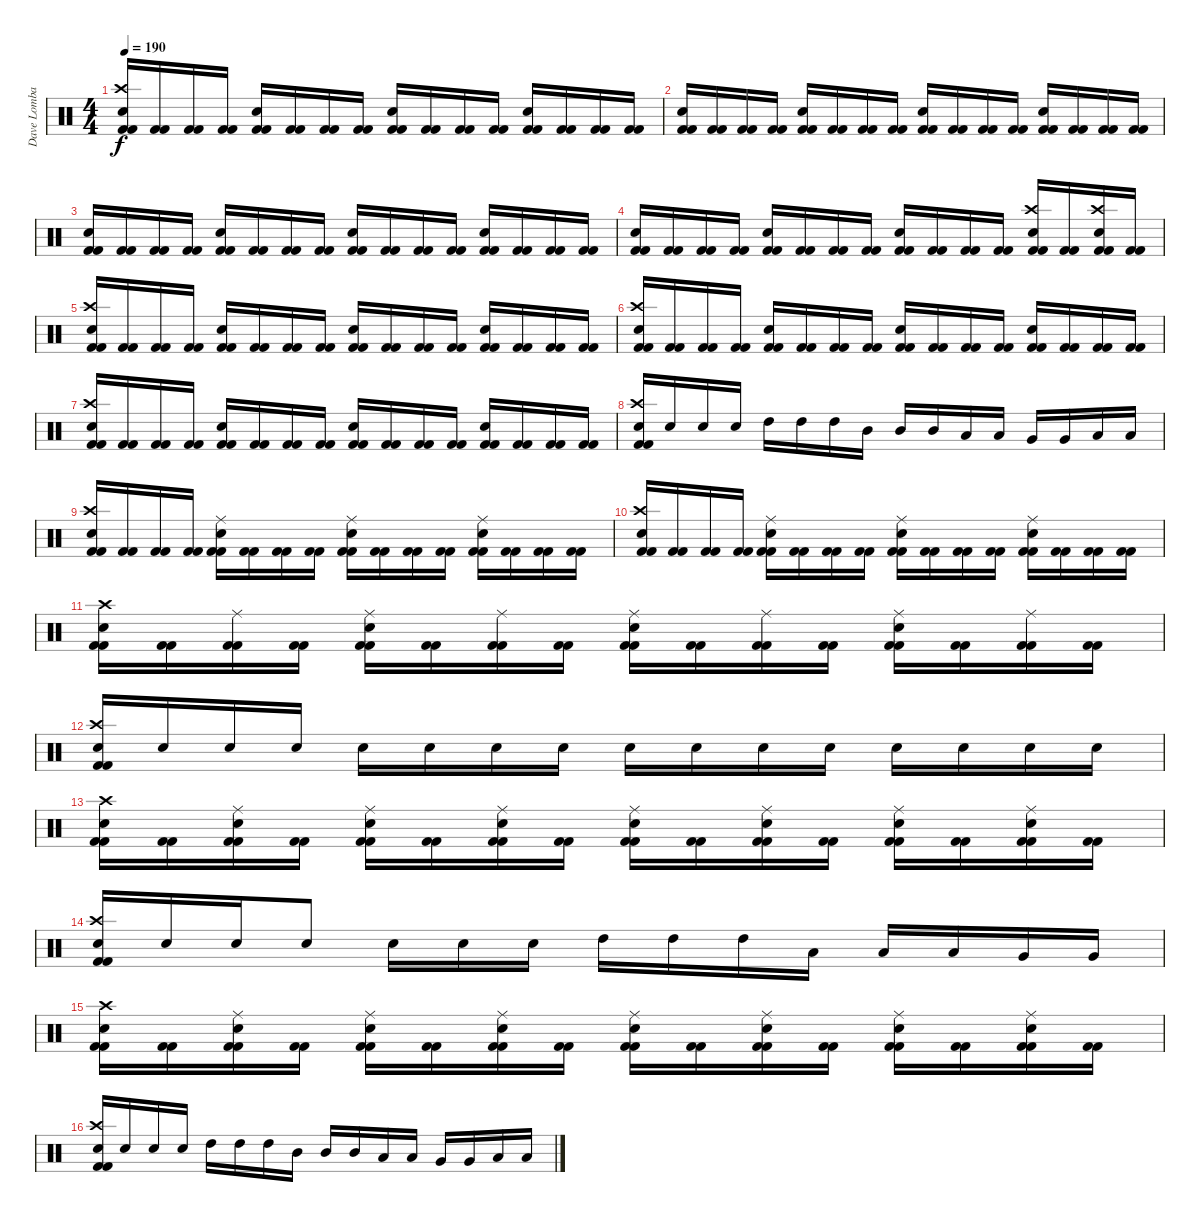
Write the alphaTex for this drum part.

\track ("Dave Lombardo" "Dave Lomba") {instrument percussion}
\staff {score}
\articulation defaults
\ts (4 4)
\tempo 190
\clef neutral
\ks c
("Kick (hit) 2" "Crash high (hit)" "Electric Snare (hit)" "Kick (hit) 2").16{dy f} ("Kick (hit) 2" "Kick (hit) 2").16 ("Kick (hit) 2" "Kick (hit) 2").16 ("Kick (hit) 2" "Kick (hit) 2").16 ("Kick (hit) 2" "Electric Snare (hit)" "Kick (hit) 2").16 ("Kick (hit) 2" "Kick (hit) 2").16 ("Kick (hit) 2" "Kick (hit) 2").16 ("Kick (hit) 2" "Kick (hit) 2").16 ("Kick (hit) 2" "Electric Snare (hit)" "Kick (hit) 2").16 ("Kick (hit) 2" "Kick (hit) 2").16 ("Kick (hit) 2" "Kick (hit) 2").16 ("Kick (hit) 2" "Kick (hit) 2").16 ("Kick (hit) 2" "Electric Snare (hit)" "Kick (hit) 2").16 ("Kick (hit) 2" "Kick (hit) 2").16 ("Kick (hit) 2" "Kick (hit) 2").16 ("Kick (hit) 2" "Kick (hit) 2").16 |
("Kick (hit) 2" "Electric Snare (hit)" "Kick (hit) 2").16 ("Kick (hit) 2" "Kick (hit) 2").16 ("Kick (hit) 2" "Kick (hit) 2").16 ("Kick (hit) 2" "Kick (hit) 2").16 ("Kick (hit) 2" "Electric Snare (hit)" "Kick (hit) 2").16 ("Kick (hit) 2" "Kick (hit) 2").16 ("Kick (hit) 2" "Kick (hit) 2").16 ("Kick (hit) 2" "Kick (hit) 2").16 ("Kick (hit) 2" "Electric Snare (hit)" "Kick (hit) 2").16 ("Kick (hit) 2" "Kick (hit) 2").16 ("Kick (hit) 2" "Kick (hit) 2").16 ("Kick (hit) 2" "Kick (hit) 2").16 ("Kick (hit) 2" "Electric Snare (hit)" "Kick (hit) 2").16 ("Kick (hit) 2" "Kick (hit) 2").16 ("Kick (hit) 2" "Kick (hit) 2").16 ("Kick (hit) 2" "Kick (hit) 2").16 |
("Kick (hit) 2" "Electric Snare (hit)" "Kick (hit) 2").16 ("Kick (hit) 2" "Kick (hit) 2").16 ("Kick (hit) 2" "Kick (hit) 2").16 ("Kick (hit) 2" "Kick (hit) 2").16 ("Kick (hit) 2" "Electric Snare (hit)" "Kick (hit) 2").16 ("Kick (hit) 2" "Kick (hit) 2").16 ("Kick (hit) 2" "Kick (hit) 2").16 ("Kick (hit) 2" "Kick (hit) 2").16 ("Kick (hit) 2" "Electric Snare (hit)" "Kick (hit) 2").16 ("Kick (hit) 2" "Kick (hit) 2").16 ("Kick (hit) 2" "Kick (hit) 2").16 ("Kick (hit) 2" "Kick (hit) 2").16 ("Kick (hit) 2" "Electric Snare (hit)" "Kick (hit) 2").16 ("Kick (hit) 2" "Kick (hit) 2").16 ("Kick (hit) 2" "Kick (hit) 2").16 ("Kick (hit) 2" "Kick (hit) 2").16 |
("Kick (hit) 2" "Electric Snare (hit)" "Kick (hit) 2").16 ("Kick (hit) 2" "Kick (hit) 2").16 ("Kick (hit) 2" "Kick (hit) 2").16 ("Kick (hit) 2" "Kick (hit) 2").16 ("Kick (hit) 2" "Electric Snare (hit)" "Kick (hit) 2").16 ("Kick (hit) 2" "Kick (hit) 2").16 ("Kick (hit) 2" "Kick (hit) 2").16 ("Kick (hit) 2" "Kick (hit) 2").16 ("Kick (hit) 2" "Electric Snare (hit)" "Kick (hit) 2").16 ("Kick (hit) 2" "Kick (hit) 2").16 ("Kick (hit) 2" "Kick (hit) 2").16 ("Kick (hit) 2" "Kick (hit) 2").16 ("Kick (hit) 2" "Crash high (hit)" "Electric Snare (hit)" "Kick (hit) 2").16 ("Kick (hit) 2" "Kick (hit) 2").16 ("Kick (hit) 2" "Crash high (hit)" "Electric Snare (hit)" "Kick (hit) 2").16 ("Kick (hit) 2" "Kick (hit) 2").16 |
("Kick (hit) 2" "Crash high (hit)" "Electric Snare (hit)" "Kick (hit) 2").16 ("Kick (hit) 2" "Kick (hit) 2").16 ("Kick (hit) 2" "Kick (hit) 2").16 ("Kick (hit) 2" "Kick (hit) 2").16 ("Kick (hit) 2" "Electric Snare (hit)" "Kick (hit) 2").16 ("Kick (hit) 2" "Kick (hit) 2").16 ("Kick (hit) 2" "Kick (hit) 2").16 ("Kick (hit) 2" "Kick (hit) 2").16 ("Kick (hit) 2" "Electric Snare (hit)" "Kick (hit) 2").16 ("Kick (hit) 2" "Kick (hit) 2").16 ("Kick (hit) 2" "Kick (hit) 2").16 ("Kick (hit) 2" "Kick (hit) 2").16 ("Kick (hit) 2" "Electric Snare (hit)" "Kick (hit) 2").16 ("Kick (hit) 2" "Kick (hit) 2").16 ("Kick (hit) 2" "Kick (hit) 2").16 ("Kick (hit) 2" "Kick (hit) 2").16 |
("Kick (hit) 2" "Crash high (hit)" "Electric Snare (hit)" "Kick (hit) 2").16 ("Kick (hit) 2" "Kick (hit) 2").16 ("Kick (hit) 2" "Kick (hit) 2").16 ("Kick (hit) 2" "Kick (hit) 2").16 ("Kick (hit) 2" "Electric Snare (hit)" "Kick (hit) 2").16 ("Kick (hit) 2" "Kick (hit) 2").16 ("Kick (hit) 2" "Kick (hit) 2").16 ("Kick (hit) 2" "Kick (hit) 2").16 ("Kick (hit) 2" "Electric Snare (hit)" "Kick (hit) 2").16 ("Kick (hit) 2" "Kick (hit) 2").16 ("Kick (hit) 2" "Kick (hit) 2").16 ("Kick (hit) 2" "Kick (hit) 2").16 ("Kick (hit) 2" "Electric Snare (hit)" "Kick (hit) 2").16 ("Kick (hit) 2" "Kick (hit) 2").16 ("Kick (hit) 2" "Kick (hit) 2").16 ("Kick (hit) 2" "Kick (hit) 2").16 |
("Kick (hit) 2" "Crash high (hit)" "Electric Snare (hit)" "Kick (hit) 2").16 ("Kick (hit) 2" "Kick (hit) 2").16 ("Kick (hit) 2" "Kick (hit) 2").16 ("Kick (hit) 2" "Kick (hit) 2").16 ("Kick (hit) 2" "Electric Snare (hit)" "Kick (hit) 2").16 ("Kick (hit) 2" "Kick (hit) 2").16 ("Kick (hit) 2" "Kick (hit) 2").16 ("Kick (hit) 2" "Kick (hit) 2").16 ("Kick (hit) 2" "Electric Snare (hit)" "Kick (hit) 2").16 ("Kick (hit) 2" "Kick (hit) 2").16 ("Kick (hit) 2" "Kick (hit) 2").16 ("Kick (hit) 2" "Kick (hit) 2").16 ("Kick (hit) 2" "Electric Snare (hit)" "Kick (hit) 2").16 ("Kick (hit) 2" "Kick (hit) 2").16 ("Kick (hit) 2" "Kick (hit) 2").16 ("Kick (hit) 2" "Kick (hit) 2").16 |
("Kick (hit) 2" "Crash high (hit)" "Electric Snare (hit)" "Kick (hit) 2").16 "Electric Snare (hit)".16 "Electric Snare (hit)".16 "Electric Snare (hit)".16 "High Tom (hit)".16 "High Tom (hit)".16 "High Tom (hit)".16 "Mid Tom (hit)".16 "Mid Tom (hit)".16 "Mid Tom (hit)".16 "Low Tom (hit)".16 "Low Tom (hit)".16 "Very Low Tom (hit)".16 "Very Low Tom (hit)".16 "Low Floor Tom (hit)".16 "Low Floor Tom (hit)".16 |
("Kick (hit) 2" "Crash high (hit)" "Electric Snare (hit)" "Kick (hit) 2").16 ("Kick (hit) 2" "Kick (hit) 2").16 ("Kick (hit) 2" "Kick (hit) 2").16 ("Kick (hit) 2" "Kick (hit) 2").16 ("Kick (hit) 2" "Ride (middle)" "Electric Snare (hit)" "Kick (hit) 2").16 ("Kick (hit) 2" "Kick (hit) 2").16 ("Kick (hit) 2" "Kick (hit) 2").16 ("Kick (hit) 2" "Kick (hit) 2").16 ("Kick (hit) 2" "Ride (middle)" "Electric Snare (hit)" "Kick (hit) 2").16 ("Kick (hit) 2" "Kick (hit) 2").16 ("Kick (hit) 2" "Kick (hit) 2").16 ("Kick (hit) 2" "Kick (hit) 2").16 ("Kick (hit) 2" "Ride (middle)" "Electric Snare (hit)" "Kick (hit) 2").16 ("Kick (hit) 2" "Kick (hit) 2").16 ("Kick (hit) 2" "Kick (hit) 2").16 ("Kick (hit) 2" "Kick (hit) 2").16 |
("Kick (hit) 2" "Crash high (hit)" "Electric Snare (hit)" "Kick (hit) 2").16 ("Kick (hit) 2" "Kick (hit) 2").16 ("Kick (hit) 2" "Kick (hit) 2").16 ("Kick (hit) 2" "Kick (hit) 2").16 ("Kick (hit) 2" "Ride (middle)" "Electric Snare (hit)" "Kick (hit) 2").16 ("Kick (hit) 2" "Kick (hit) 2").16 ("Kick (hit) 2" "Kick (hit) 2").16 ("Kick (hit) 2" "Kick (hit) 2").16 ("Kick (hit) 2" "Ride (middle)" "Electric Snare (hit)" "Kick (hit) 2").16 ("Kick (hit) 2" "Kick (hit) 2").16 ("Kick (hit) 2" "Kick (hit) 2").16 ("Kick (hit) 2" "Kick (hit) 2").16 ("Kick (hit) 2" "Ride (middle)" "Electric Snare (hit)" "Kick (hit) 2").16 ("Kick (hit) 2" "Kick (hit) 2").16 ("Kick (hit) 2" "Kick (hit) 2").16 ("Kick (hit) 2" "Kick (hit) 2").16 |
("Kick (hit) 2" "Crash high (hit)" "Electric Snare (hit)" "Kick (hit) 2").16 ("Kick (hit) 2" "Kick (hit) 2").16 ("Kick (hit) 2" "Ride (middle)" "Kick (hit) 2").16 ("Kick (hit) 2" "Kick (hit) 2").16 ("Kick (hit) 2" "Ride (middle)" "Electric Snare (hit)" "Kick (hit) 2").16 ("Kick (hit) 2" "Kick (hit) 2").16 ("Kick (hit) 2" "Ride (middle)" "Kick (hit) 2").16 ("Kick (hit) 2" "Kick (hit) 2").16 ("Kick (hit) 2" "Ride (middle)" "Electric Snare (hit)" "Kick (hit) 2").16 ("Kick (hit) 2" "Kick (hit) 2").16 ("Kick (hit) 2" "Ride (middle)" "Kick (hit) 2").16 ("Kick (hit) 2" "Kick (hit) 2").16 ("Kick (hit) 2" "Ride (middle)" "Electric Snare (hit)" "Kick (hit) 2").16 ("Kick (hit) 2" "Kick (hit) 2").16 ("Kick (hit) 2" "Ride (middle)" "Kick (hit) 2").16 ("Kick (hit) 2" "Kick (hit) 2").16 |
("Kick (hit) 2" "Crash high (hit)" "Electric Snare (hit)" "Kick (hit) 2").16 "Electric Snare (hit)".16 "Electric Snare (hit)".16 "Electric Snare (hit)".16 "Electric Snare (hit)".16 "Electric Snare (hit)".16 "Electric Snare (hit)".16 "Electric Snare (hit)".16 "Electric Snare (hit)".16 "Electric Snare (hit)".16 "Electric Snare (hit)".16 "Electric Snare (hit)".16 "Electric Snare (hit)".16 "Electric Snare (hit)".16 "Electric Snare (hit)".16 "Electric Snare (hit)".16 |
("Kick (hit) 2" "Crash high (hit)" "Electric Snare (hit)" "Kick (hit) 2").16 ("Kick (hit) 2" "Kick (hit) 2").16 ("Kick (hit) 2" "Ride (middle)" "Electric Snare (hit)" "Kick (hit) 2").16 ("Kick (hit) 2" "Kick (hit) 2").16 ("Kick (hit) 2" "Ride (middle)" "Electric Snare (hit)" "Kick (hit) 2").16 ("Kick (hit) 2" "Kick (hit) 2").16 ("Kick (hit) 2" "Ride (middle)" "Electric Snare (hit)" "Kick (hit) 2").16 ("Kick (hit) 2" "Kick (hit) 2").16 ("Kick (hit) 2" "Ride (middle)" "Electric Snare (hit)" "Kick (hit) 2").16 ("Kick (hit) 2" "Kick (hit) 2").16 ("Kick (hit) 2" "Ride (middle)" "Electric Snare (hit)" "Kick (hit) 2").16 ("Kick (hit) 2" "Kick (hit) 2").16 ("Kick (hit) 2" "Ride (middle)" "Electric Snare (hit)" "Kick (hit) 2").16 ("Kick (hit) 2" "Kick (hit) 2").16 ("Kick (hit) 2" "Ride (middle)" "Electric Snare (hit)" "Kick (hit) 2").16 ("Kick (hit) 2" "Kick (hit) 2").16 |
("Kick (hit) 2" "Crash high (hit)" "Electric Snare (hit)" "Kick (hit) 2").16 "Electric Snare (hit)".16 "Electric Snare (hit)".16 "Electric Snare (hit)".8 "Electric Snare (hit)".16 "Electric Snare (hit)".16 "Electric Snare (hit)".16 "High Tom (hit)".16 "High Tom (hit)".16 "High Tom (hit)".16 "Low Tom (hit)".16 "Low Tom (hit)".16 "Low Tom (hit)".16 "Very Low Tom (hit)".16 "Very Low Tom (hit)".16 |
("Kick (hit) 2" "Crash high (hit)" "Electric Snare (hit)" "Kick (hit) 2").16 ("Kick (hit) 2" "Kick (hit) 2").16 ("Kick (hit) 2" "Ride (middle)" "Electric Snare (hit)" "Kick (hit) 2").16 ("Kick (hit) 2" "Kick (hit) 2").16 ("Kick (hit) 2" "Ride (middle)" "Electric Snare (hit)" "Kick (hit) 2").16 ("Kick (hit) 2" "Kick (hit) 2").16 ("Kick (hit) 2" "Ride (middle)" "Electric Snare (hit)" "Kick (hit) 2").16 ("Kick (hit) 2" "Kick (hit) 2").16 ("Kick (hit) 2" "Ride (middle)" "Electric Snare (hit)" "Kick (hit) 2").16 ("Kick (hit) 2" "Kick (hit) 2").16 ("Kick (hit) 2" "Ride (middle)" "Electric Snare (hit)" "Kick (hit) 2").16 ("Kick (hit) 2" "Kick (hit) 2").16 ("Kick (hit) 2" "Ride (middle)" "Electric Snare (hit)" "Kick (hit) 2").16 ("Kick (hit) 2" "Kick (hit) 2").16 ("Kick (hit) 2" "Ride (middle)" "Electric Snare (hit)" "Kick (hit) 2").16 ("Kick (hit) 2" "Kick (hit) 2").16 |
("Kick (hit) 2" "Crash high (hit)" "Electric Snare (hit)" "Kick (hit) 2").16 "Electric Snare (hit)".16 "Electric Snare (hit)".16 "Electric Snare (hit)".16 "High Tom (hit)".16 "High Tom (hit)".16 "High Tom (hit)".16 "Mid Tom (hit)".16 "Mid Tom (hit)".16 "Mid Tom (hit)".16 "Low Tom (hit)".16 "Low Tom (hit)".16 "Very Low Tom (hit)".16 "Very Low Tom (hit)".16 "Low Floor Tom (hit)".16 "Low Floor Tom (hit)".16
